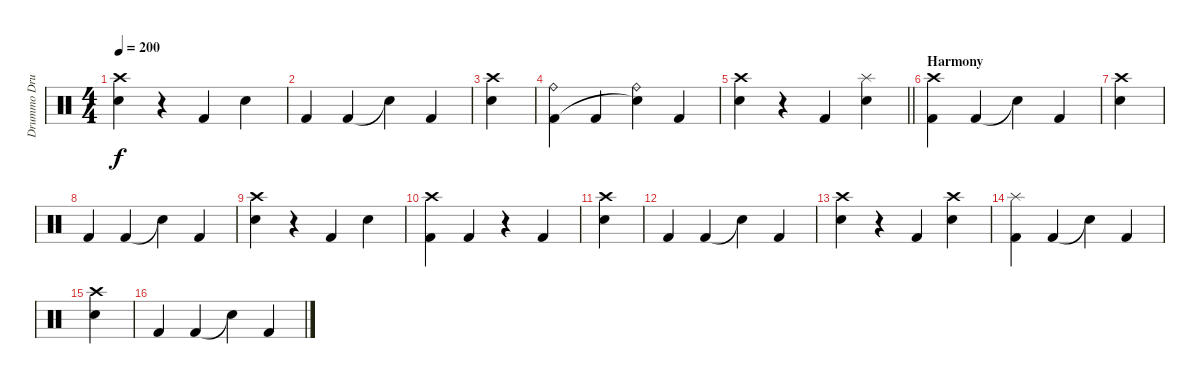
\track ("Drummo Drummer" "Drummo Dru") {instrument percussion}
\staff {score}
\articulation defaults
\ts (4 4)
\tempo 200
\clef neutral
\ks c
("Crash high (hit)" "Electric Snare (hit)").4{dy f} r.4 "Kick (hit) 2".4 "Electric Snare (hit)".4 |
"Kick (hit) 2".4 "Kick (hit) 2".4 "Snare (hit)"{t}.4 "Kick (hit) 2".4 |
("Crash high (hit)" "Electric Snare (hit)").4 |
("Ride (bell)" "Kick (hit) 2").4 "Kick (hit) 2".4 ("Ride (bell)" "Snare (hit)"{t}).4 "Kick (hit) 2".4 |
\barLineRight lightlight
("Crash high (hit)" "Electric Snare (hit)").4 r.4 "Kick (hit) 2".4 ("Splash (hit)" "Electric Snare (hit)").4 |
\section ("" "Harmony")
("Crash high (hit)" "Kick (hit) 2").4 "Kick (hit) 2".4 "Snare (hit)"{t}.4 "Kick (hit) 2".4 |
("Crash high (hit)" "Electric Snare (hit)").4 |
"Kick (hit) 2".4 "Kick (hit) 2".4 "Snare (hit)"{t}.4 "Kick (hit) 2".4 |
("Crash high (hit)" "Electric Snare (hit)").4 r.4 "Kick (hit) 2".4 "Electric Snare (hit)".4 |
("Crash high (hit)" "Kick (hit) 2").4 "Kick (hit) 2".4 r.4 "Kick (hit) 2".4 |
("Crash high (hit)" "Electric Snare (hit)").4 |
"Kick (hit) 2".4 "Kick (hit) 2".4 "Snare (hit)"{t}.4 "Kick (hit) 2".4 |
("Crash high (hit)" "Electric Snare (hit)").4 r.4 "Kick (hit) 2".4 ("Crash high (hit)" "Electric Snare (hit)").4 |
("Splash (hit)" "Kick (hit) 2").4 "Kick (hit) 2".4 "Snare (hit)"{t}.4 "Kick (hit) 2".4 |
("Crash high (hit)" "Electric Snare (hit)").4 |
"Kick (hit) 2".4 "Kick (hit) 2".4 "Snare (hit)"{t}.4 "Kick (hit) 2".4
